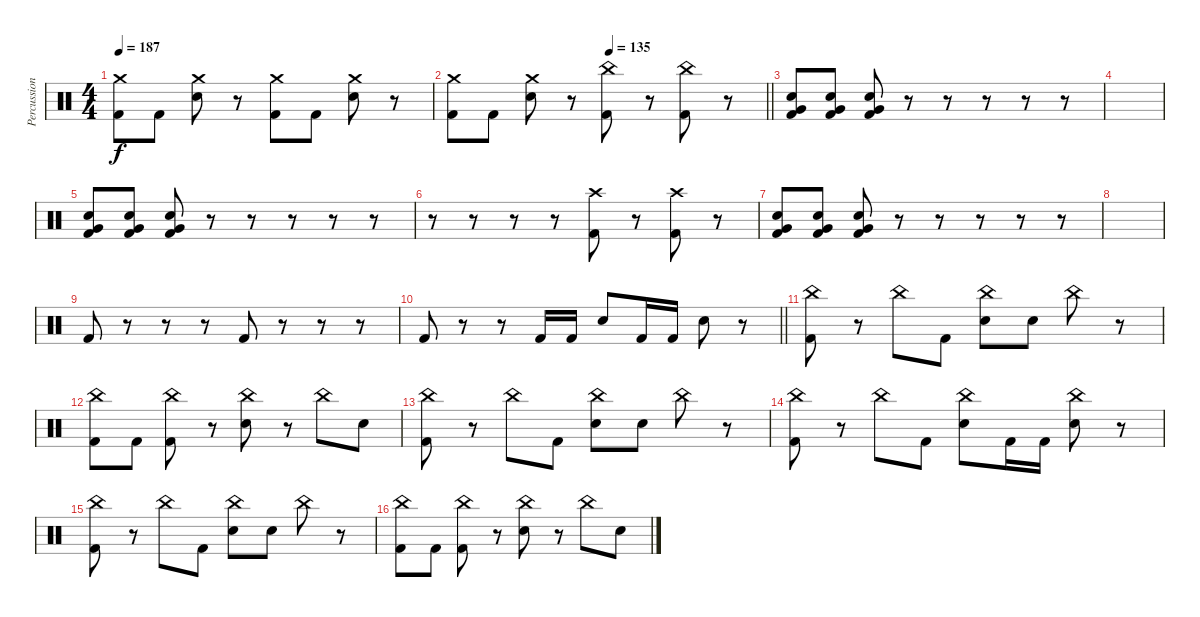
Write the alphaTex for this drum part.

\track ("Percussion" "Percussion") {instrument percussion}
\staff {score}
\articulation defaults
\ts (4 4)
\tempo 187
\clef neutral
\ks c
("Crash medium (hit)" "Kick (hit) 2").8{dy f} "Kick (hit) 2".8 ("Crash medium (hit)" "Snare (hit) 2").8 r.8 ("Crash medium (hit)" "Kick (hit) 2").8 "Kick (hit) 2".8 ("Crash medium (hit)" "Snare (hit) 2").8 r.8 |
\tempo (135 0.5)
\barLineRight lightlight
("Crash medium (hit)" "Kick (hit) 2").8 "Kick (hit) 2".8 ("Crash medium (hit)" "Snare (hit) 2").8 r.8 ("China (hit)" "Kick (hit) 2").8 r.8 ("China (hit)" "Kick (hit) 2").8 r.8 |
\section ("" "")
("Very Low Tom (hit)" "Snare (hit) 2" "Kick (hit) 2").8 ("Very Low Tom (hit)" "Snare (hit) 2" "Kick (hit) 2").8 ("Very Low Tom (hit)" "Snare (hit) 2" "Kick (hit) 2").8 r.8 r.8 r.8 r.8 r.8 |
|
("Very Low Tom (hit)" "Snare (hit) 2" "Kick (hit) 2").8 ("Very Low Tom (hit)" "Snare (hit) 2" "Kick (hit) 2").8 ("Very Low Tom (hit)" "Snare (hit) 2" "Kick (hit) 2").8 r.8 r.8 r.8 r.8 r.8 |
r.8 r.8 r.8 r.8 ("Crash high (hit)" "Kick (hit) 2").8 r.8 ("Crash high (hit)" "Kick (hit) 2").8 r.8 |
("Very Low Tom (hit)" "Snare (hit) 2" "Kick (hit) 2").8 ("Very Low Tom (hit)" "Snare (hit) 2" "Kick (hit) 2").8 ("Very Low Tom (hit)" "Snare (hit) 2" "Kick (hit) 2").8 r.8 r.8 r.8 r.8 r.8 |
|
"Kick (hit) 2".8 r.8 r.8 r.8 "Kick (hit) 2".8 r.8 r.8 r.8 |
\barLineRight lightlight "Kick (hit) 2".8
r.8 r.8 "Kick (hit) 2".16 "Kick (hit) 2".16 "Snare (hit) 2".8 "Kick (hit) 2".16 "Kick (hit) 2".16 "Snare (hit) 2".8 r.8 |
\section ("" "")
("China (hit)" "Kick (hit) 2").8 r.8 "China (hit)".8 "Kick (hit) 2".8 ("China (hit)" "Snare (hit) 2").8 "Snare (hit) 2".8 "China (hit)".8 r.8 |
("China (hit)" "Kick (hit) 2").8 "Kick (hit) 2".8 ("China (hit)" "Kick (hit) 2").8 r.8 ("China (hit)" "Snare (hit) 2").8 r.8 "China (hit)".8 "Snare (hit) 2".8 |
("China (hit)" "Kick (hit) 2").8 r.8 "China (hit)".8 "Kick (hit) 2".8 ("China (hit)" "Snare (hit) 2").8 "Snare (hit) 2".8 "China (hit)".8 r.8 |
("China (hit)" "Kick (hit) 2").8 r.8 "China (hit)".8 "Kick (hit) 2".8 ("China (hit)" "Snare (hit) 2").8 "Kick (hit) 2".16 "Kick (hit) 2".16 ("China (hit)" "Snare (hit) 2").8 r.8 |
("China (hit)" "Kick (hit) 2").8 r.8 "China (hit)".8 "Kick (hit) 2".8 ("China (hit)" "Snare (hit) 2").8 "Snare (hit) 2".8 "China (hit)".8 r.8 |
("China (hit)" "Kick (hit) 2").8 "Kick (hit) 2".8 ("China (hit)" "Kick (hit) 2").8 r.8 ("China (hit)" "Snare (hit) 2").8 r.8 "China (hit)".8 "Snare (hit) 2".8
